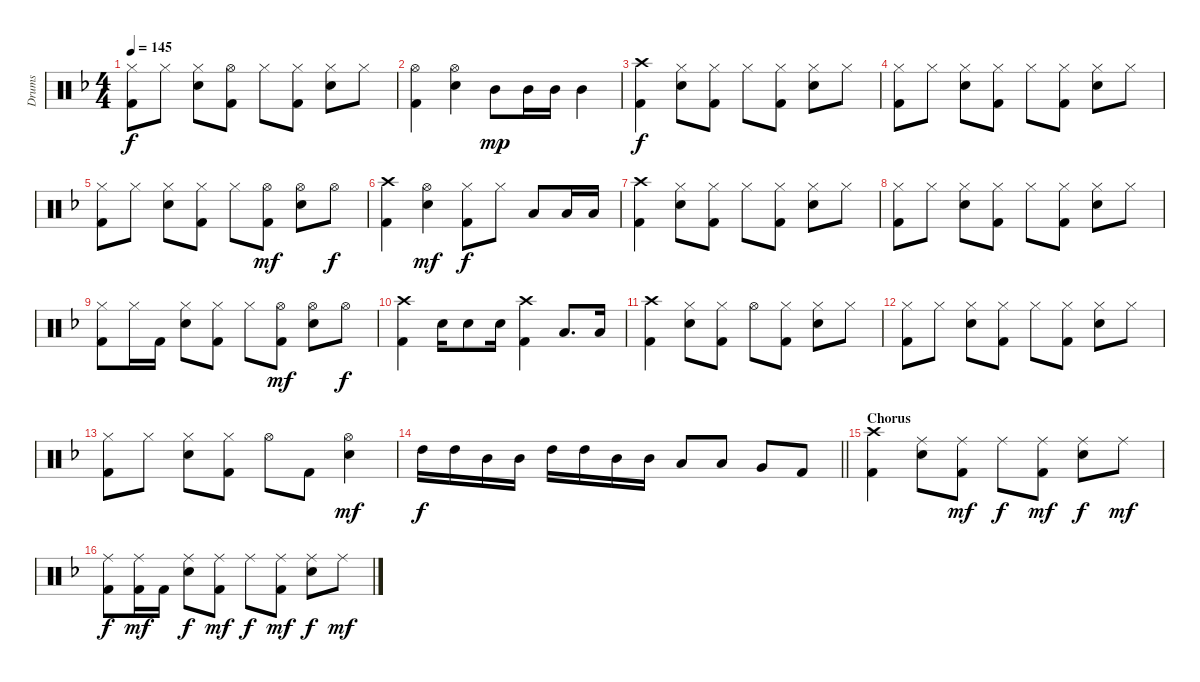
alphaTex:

\track ("Drums" "Drums") {instrument percussion}
\staff {score}
\articulation defaults
\ts (4 4)
\tempo 145
\clef neutral
\ks f
("Hi-Hat (closed)" "Kick (hit) 2").8{dy f} "Hi-Hat (closed)".8 ("Hi-Hat (closed)" "Electric Snare (hit)").8 ("Hi-Hat (open)" "Kick (hit) 2").8 "Hi-Hat (closed)".8 ("Hi-Hat (closed)" "Kick (hit) 2").8 ("Hi-Hat (closed)" "Electric Snare (hit)").8 "Hi-Hat (closed)".8 |
("Hi-Hat (open)" "Kick (hit) 2").4 ("Hi-Hat (open)" "Electric Snare (hit)").4 "Mid Tom (hit)".8{dy mp} "Mid Tom (hit)".16 "Mid Tom (hit)".16 "Mid Tom (hit)".4 |
("Crash high (hit)" "Kick (hit) 2").4{dy f} ("Hi-Hat (closed)" "Electric Snare (hit)").8 ("Hi-Hat (closed)" "Kick (hit) 2").8 "Hi-Hat (closed)".8 ("Hi-Hat (closed)" "Kick (hit) 2").8 ("Hi-Hat (closed)" "Electric Snare (hit)").8 "Hi-Hat (closed)".8 |
("Hi-Hat (closed)" "Kick (hit) 2").8 "Hi-Hat (closed)".8 ("Hi-Hat (closed)" "Electric Snare (hit)").8 ("Hi-Hat (closed)" "Kick (hit) 2").8 "Hi-Hat (closed)".8 ("Hi-Hat (closed)" "Kick (hit) 2").8 ("Hi-Hat (closed)" "Electric Snare (hit)").8 "Hi-Hat (closed)".8 |
("Hi-Hat (closed)" "Kick (hit) 2").8 "Hi-Hat (closed)".8 ("Hi-Hat (closed)" "Electric Snare (hit)").8 ("Hi-Hat (closed)" "Kick (hit) 2").8 "Hi-Hat (closed)".8 ("Hi-Hat (open)" "Kick (hit) 2").8{dy mf} ("Hi-Hat (open)" "Electric Snare (hit)").8 "Hi-Hat (open)".8{dy f} |
("Crash high (hit)" "Kick (hit) 2").4 ("Hi-Hat (open)" "Electric Snare (hit)").4{dy mf} ("Hi-Hat (closed)" "Kick (hit) 2").8{dy f} "Hi-Hat (closed)".8 "Low Tom (hit)".8 "Low Tom (hit)".16 "Low Tom (hit)".16 |
("Crash high (hit)" "Kick (hit) 2").4 ("Hi-Hat (closed)" "Electric Snare (hit)").8 ("Hi-Hat (closed)" "Kick (hit) 2").8 "Hi-Hat (closed)".8 ("Hi-Hat (closed)" "Kick (hit) 2").8 ("Hi-Hat (closed)" "Electric Snare (hit)").8 "Hi-Hat (closed)".8 |
("Hi-Hat (closed)" "Kick (hit) 2").8 "Hi-Hat (closed)".8 ("Hi-Hat (closed)" "Electric Snare (hit)").8 ("Hi-Hat (closed)" "Kick (hit) 2").8 "Hi-Hat (closed)".8 ("Hi-Hat (closed)" "Kick (hit) 2").8 ("Hi-Hat (closed)" "Electric Snare (hit)").8 "Hi-Hat (closed)".8 |
("Hi-Hat (closed)" "Kick (hit) 2").8 "Hi-Hat (closed)".16 "Kick (hit) 2".16 ("Hi-Hat (closed)" "Electric Snare (hit)").8 ("Hi-Hat (closed)" "Kick (hit) 2").8 "Hi-Hat (closed)".8 ("Hi-Hat (open)" "Kick (hit) 2").8{dy mf} ("Hi-Hat (open)" "Electric Snare (hit)").8 "Hi-Hat (open)".8{dy f} |
("Crash high (hit)" "Kick (hit) 2").4 "Electric Snare (hit)".16 "Electric Snare (hit)".8 "Electric Snare (hit)".16 ("Crash high (hit)" "Kick (hit) 2").4 "Low Tom (hit)".8{d} "Low Tom (hit)".16 |
("Crash high (hit)" "Kick (hit) 2").4 ("Hi-Hat (closed)" "Electric Snare (hit)").8 ("Hi-Hat (closed)" "Kick (hit) 2").8 "Hi-Hat (open)".8 ("Hi-Hat (closed)" "Kick (hit) 2").8 ("Hi-Hat (closed)" "Electric Snare (hit)").8 "Hi-Hat (closed)".8 |
("Hi-Hat (closed)" "Kick (hit) 2").8 "Hi-Hat (closed)".8 ("Hi-Hat (closed)" "Electric Snare (hit)").8 ("Hi-Hat (closed)" "Kick (hit) 2").8 "Hi-Hat (closed)".8 ("Hi-Hat (closed)" "Kick (hit) 2").8 ("Hi-Hat (closed)" "Electric Snare (hit)").8 "Hi-Hat (closed)".8 |
("Hi-Hat (closed)" "Kick (hit) 2").8 "Hi-Hat (closed)".8 ("Hi-Hat (closed)" "Electric Snare (hit)").8 ("Hi-Hat (closed)" "Kick (hit) 2").8 "Hi-Hat (open)".8 "Kick (hit) 2".8 ("Hi-Hat (open)" "Electric Snare (hit)").4{dy mf} |
\barLineRight lightlight "High Tom (hit)".16{dy f} "High Tom (hit)".16 "Mid Tom (hit)".16 "Mid Tom (hit)".16 "High Tom (hit)".16 "High Tom (hit)".16 "Mid Tom (hit)".16 "Mid Tom (hit)".16 "Low Tom (hit)".8 "Low Tom (hit)".8 "Very Low Tom (hit)".8 "Kick (hit) 2".8
|
\section ("" "Chorus")
("Crash high (hit)" "Kick (hit) 2").4 ("Ride (middle)" "Electric Snare (hit)").8 ("Ride (middle)" "Kick (hit) 2").8{dy mf} "Ride (middle)".8{dy f} ("Ride (middle)" "Kick (hit) 2").8{dy mf} ("Ride (middle)" "Electric Snare (hit)").8{dy f} "Ride (middle)".8{dy mf} |
("Ride (middle)" "Kick (hit) 2").8{dy f} ("Ride (middle)" "Kick (hit) 2").16{dy mf} "Kick (hit) 2".16 ("Ride (middle)" "Electric Snare (hit)").8{dy f} ("Ride (middle)" "Kick (hit) 2").8{dy mf} "Ride (middle)".8{dy f} ("Ride (middle)" "Kick (hit) 2").8{dy mf} ("Ride (middle)" "Electric Snare (hit)").8{dy f} "Ride (middle)".8{dy mf}
